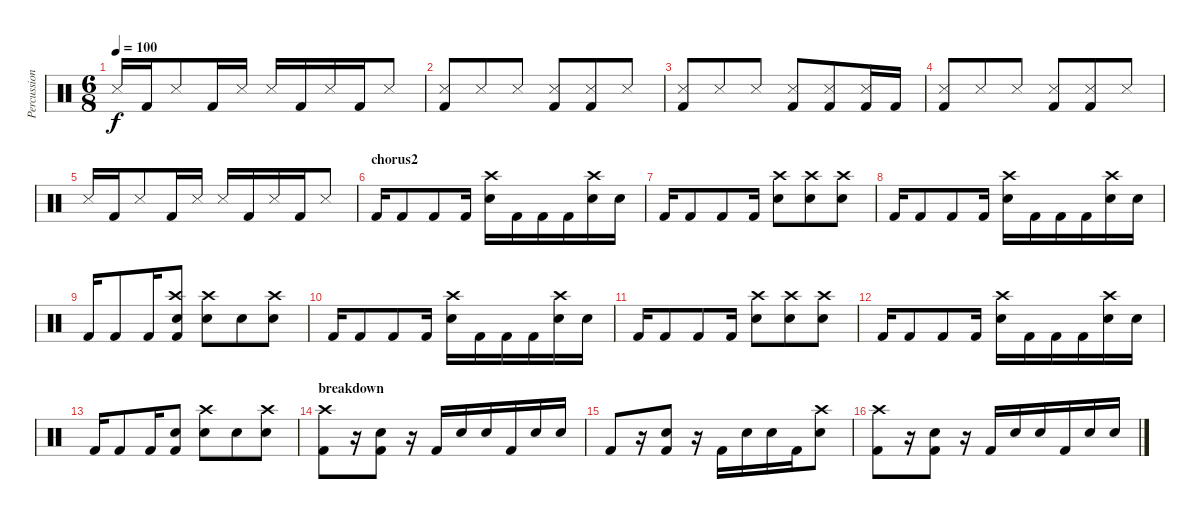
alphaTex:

\track ("Percussion" "Percussion") {instrument percussion}
\staff {score}
\articulation defaults
\ts (6 8)
\tempo 100
\clef neutral
\ks c "Snare (side stick) 3".16{dy f} "Kick (hit) 2".16 "Snare (side stick) 3".8 "Kick (hit) 2".16 "Snare (side stick) 3".16 "Snare (side stick) 3".16 "Kick (hit) 2".16 "Snare (side stick) 3".16 "Kick (hit) 2".16 "Snare (side stick) 3".8
|
("Snare (side stick) 3" "Kick (hit) 2").8 "Snare (side stick) 3".8 "Snare (side stick) 3".8 ("Snare (side stick) 3" "Kick (hit) 2").8 ("Snare (side stick) 3" "Kick (hit) 2").8 "Snare (side stick) 3".8 |
("Snare (side stick) 3" "Kick (hit) 2").8 "Snare (side stick) 3".8 "Snare (side stick) 3".8 ("Snare (side stick) 3" "Kick (hit) 2").8 ("Snare (side stick) 3" "Kick (hit) 2").8 ("Snare (side stick) 3" "Kick (hit) 2").16 "Kick (hit) 2".16 |
("Snare (side stick) 3" "Kick (hit) 2").8 "Snare (side stick) 3".8 "Snare (side stick) 3".8 ("Snare (side stick) 3" "Kick (hit) 2").8 ("Snare (side stick) 3" "Kick (hit) 2").8 "Snare (side stick) 3".8 |
"Snare (side stick) 3".16 "Kick (hit) 2".16 "Snare (side stick) 3".8 "Kick (hit) 2".16 "Snare (side stick) 3".16 "Snare (side stick) 3".16 "Kick (hit) 2".16 "Snare (side stick) 3".16 "Kick (hit) 2".16 "Snare (side stick) 3".8 |
\section ("" "chorus2")
"Kick (hit) 2".16 "Kick (hit) 2".8 "Kick (hit) 2".8 "Kick (hit) 2".16 ("Crash high (hit)" "Snare (hit) 2").16 "Kick (hit) 2".16 "Kick (hit) 2".16 "Kick (hit) 2".16 ("Crash high (hit)" "Snare (hit) 2").16 "Snare (hit) 2".16 |
"Kick (hit) 2".16 "Kick (hit) 2".8 "Kick (hit) 2".8 "Kick (hit) 2".16 ("Crash high (hit)" "Snare (hit) 2").8 ("Crash high (hit)" "Snare (hit) 2").8 ("Crash high (hit)" "Snare (hit) 2").8 |
"Kick (hit) 2".16 "Kick (hit) 2".8 "Kick (hit) 2".8 "Kick (hit) 2".16 ("Crash high (hit)" "Snare (hit) 2").16 "Kick (hit) 2".16 "Kick (hit) 2".16 "Kick (hit) 2".16 ("Crash high (hit)" "Snare (hit) 2").16 "Snare (hit) 2".16 |
"Kick (hit) 2".16 "Kick (hit) 2".8 "Kick (hit) 2".16 ("Crash high (hit)" "Snare (hit) 2" "Kick (hit) 2").8 ("Crash high (hit)" "Snare (hit) 2").8 "Snare (hit) 2".8 ("Crash high (hit)" "Snare (hit) 2").8 |
"Kick (hit) 2".16 "Kick (hit) 2".8 "Kick (hit) 2".8 "Kick (hit) 2".16 ("Crash high (hit)" "Snare (hit) 2").16 "Kick (hit) 2".16 "Kick (hit) 2".16 "Kick (hit) 2".16 ("Crash high (hit)" "Snare (hit) 2").16 "Snare (hit) 2".16 |
"Kick (hit) 2".16 "Kick (hit) 2".8 "Kick (hit) 2".8 "Kick (hit) 2".16 ("Crash high (hit)" "Snare (hit) 2").8 ("Crash high (hit)" "Snare (hit) 2").8 ("Crash high (hit)" "Snare (hit) 2").8 |
"Kick (hit) 2".16 "Kick (hit) 2".8 "Kick (hit) 2".8 "Kick (hit) 2".16 ("Crash high (hit)" "Snare (hit) 2").16 "Kick (hit) 2".16 "Kick (hit) 2".16 "Kick (hit) 2".16 ("Crash high (hit)" "Snare (hit) 2").16 "Snare (hit) 2".16 |
"Kick (hit) 2".16 "Kick (hit) 2".8 "Kick (hit) 2".16 ("Snare (hit) 2" "Kick (hit) 2").8 ("Crash high (hit)" "Snare (hit) 2").8 "Snare (hit) 2".8 ("Crash high (hit)" "Snare (hit) 2").8 |
\section ("" "breakdown")
("Crash high (hit)" "Kick (hit) 2").8 r.16 ("Snare (hit) 2" "Kick (hit) 2").8 r.16 "Kick (hit) 2".16 "Snare (hit) 2".16 "Snare (hit) 2".16 "Kick (hit) 2".16 "Snare (hit) 2".16 "Snare (hit) 2".16 |
"Kick (hit) 2".8 r.16 ("Snare (hit) 2" "Kick (hit) 2").8 r.16 "Kick (hit) 2".16 "Snare (hit) 2".16 "Snare (hit) 2".16 "Kick (hit) 2".16 ("Crash high (hit)" "Snare (hit) 2").8 |
("Crash high (hit)" "Kick (hit) 2").8 r.16 ("Snare (hit) 2" "Kick (hit) 2").8 r.16 "Kick (hit) 2".16 "Snare (hit) 2".16 "Snare (hit) 2".16 "Kick (hit) 2".16 "Snare (hit) 2".16 "Snare (hit) 2".16
